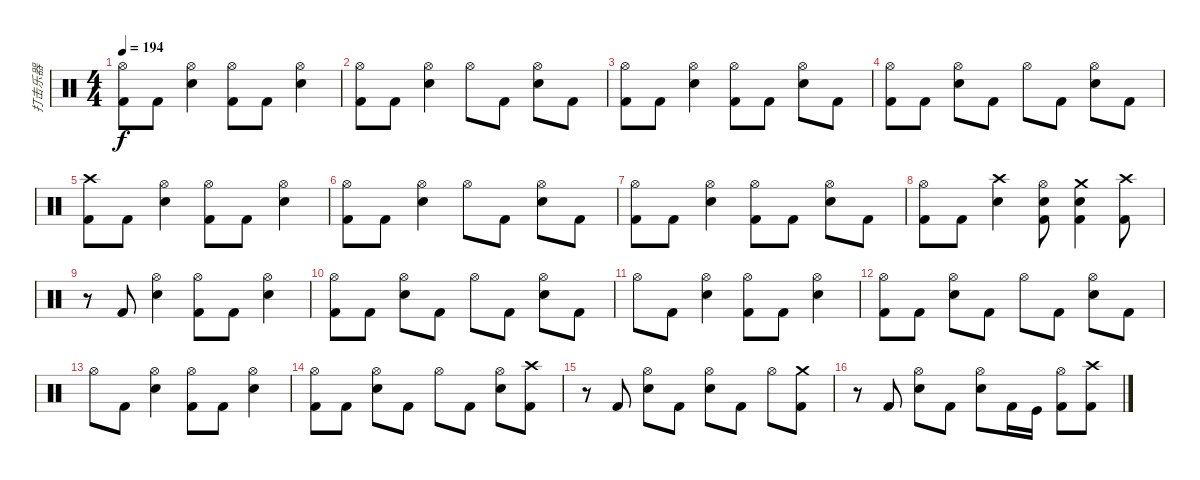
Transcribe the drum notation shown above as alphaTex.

\track ("打击乐器" "打击乐器") {instrument percussion}
\staff {score}
\articulation defaults
\ts (4 4)
\tempo 194
\clef neutral
\ks c
("Hi-Hat (open)" "Kick (hit) 2").8{dy f} "Kick (hit) 2".8 ("Hi-Hat (open)" "Electric Snare (hit)").4 ("Hi-Hat (open)" "Kick (hit) 2").8 "Kick (hit) 2".8 ("Hi-Hat (open)" "Electric Snare (hit)").4 |
("Hi-Hat (open)" "Kick (hit) 2").8 "Kick (hit) 2".8 ("Hi-Hat (open)" "Electric Snare (hit)").4 "Hi-Hat (open)".8 "Kick (hit) 2".8 ("Hi-Hat (open)" "Electric Snare (hit)").8 "Kick (hit) 2".8 |
("Hi-Hat (open)" "Kick (hit) 2").8 "Kick (hit) 2".8 ("Hi-Hat (open)" "Electric Snare (hit)").4 ("Hi-Hat (open)" "Kick (hit) 2").8 "Kick (hit) 2".8 ("Hi-Hat (open)" "Electric Snare (hit)").8 "Kick (hit) 2".8 |
("Hi-Hat (open)" "Kick (hit) 2").8 "Kick (hit) 2".8 ("Hi-Hat (open)" "Electric Snare (hit)").8 "Kick (hit) 2".8 "Hi-Hat (open)".8 "Kick (hit) 2".8 ("Hi-Hat (open)" "Electric Snare (hit)").8 "Kick (hit) 2".8 |
("Crash high (hit)" "Kick (hit) 2").8 "Kick (hit) 2".8 ("Hi-Hat (open)" "Electric Snare (hit)").4 ("Hi-Hat (open)" "Kick (hit) 2").8 "Kick (hit) 2".8 ("Hi-Hat (open)" "Electric Snare (hit)").4 |
("Hi-Hat (open)" "Kick (hit) 2").8 "Kick (hit) 2".8 ("Hi-Hat (open)" "Electric Snare (hit)").4 "Hi-Hat (open)".8 "Kick (hit) 2".8 ("Hi-Hat (open)" "Electric Snare (hit)").8 "Kick (hit) 2".8 |
("Hi-Hat (open)" "Kick (hit) 2").8 "Kick (hit) 2".8 ("Hi-Hat (open)" "Electric Snare (hit)").4 ("Hi-Hat (open)" "Kick (hit) 2").8 "Kick (hit) 2".8 ("Hi-Hat (open)" "Electric Snare (hit)").8 "Kick (hit) 2".8 |
("Hi-Hat (open)" "Kick (hit) 2").8 "Kick (hit) 2".8 ("Crash high (hit)" "Electric Snare (hit)").4 ("Hi-Hat (open)" "Electric Snare (hit)" "Kick (hit) 2").8 ("Crash medium (hit)" "Electric Snare (hit)" "Kick (hit) 2").4 ("Crash high (hit)" "Kick (hit) 2").8 |
r.8 "Kick (hit) 2".8 ("Hi-Hat (open)" "Electric Snare (hit)").4 ("Hi-Hat (open)" "Kick (hit) 2").8 "Kick (hit) 2".8 ("Hi-Hat (open)" "Electric Snare (hit)").4 |
("Hi-Hat (open)" "Kick (hit) 2").8 "Kick (hit) 2".8 ("Hi-Hat (open)" "Electric Snare (hit)").8 "Kick (hit) 2".8 "Hi-Hat (open)".8 "Kick (hit) 2".8 ("Hi-Hat (open)" "Electric Snare (hit)").8 "Kick (hit) 2".8 |
"Hi-Hat (open)".8 "Kick (hit) 2".8 ("Hi-Hat (open)" "Electric Snare (hit)").4 ("Hi-Hat (open)" "Kick (hit) 2").8 "Kick (hit) 2".8 ("Hi-Hat (open)" "Electric Snare (hit)").4 |
("Hi-Hat (open)" "Kick (hit) 2").8 "Kick (hit) 2".8 ("Hi-Hat (open)" "Electric Snare (hit)").8 "Kick (hit) 2".8 "Hi-Hat (open)".8 "Kick (hit) 2".8 ("Hi-Hat (open)" "Electric Snare (hit)").8 "Kick (hit) 2".8 |
"Hi-Hat (open)".8 "Kick (hit) 2".8 ("Hi-Hat (open)" "Electric Snare (hit)").4 ("Hi-Hat (open)" "Kick (hit) 2").8 "Kick (hit) 2".8 ("Hi-Hat (open)" "Electric Snare (hit)").4 |
("Hi-Hat (open)" "Kick (hit) 2").8 "Kick (hit) 2".8 ("Hi-Hat (open)" "Electric Snare (hit)").8 "Kick (hit) 2".8 "Hi-Hat (open)".8 "Kick (hit) 2".8 ("Hi-Hat (open)" "Electric Snare (hit)").8 ("Crash high (hit)" "Kick (hit) 2").8 |
r.8 "Kick (hit) 2".8 ("Hi-Hat (open)" "Electric Snare (hit)").8 "Kick (hit) 2".8 ("Hi-Hat (open)" "Electric Snare (hit)").8 "Kick (hit) 2".8 "Hi-Hat (open)".8 ("Crash medium (hit)" "Kick (hit) 2").8 |
r.8 "Kick (hit) 2".8 ("Hi-Hat (open)" "Electric Snare (hit)").8 "Kick (hit) 2".8 ("Hi-Hat (open)" "Electric Snare (hit)").8 "Kick (hit) 2".16 "Kick (hit)".16 ("Hi-Hat (open)" "Kick (hit) 2").8 ("Crash high (hit)" "Kick (hit) 2").8
